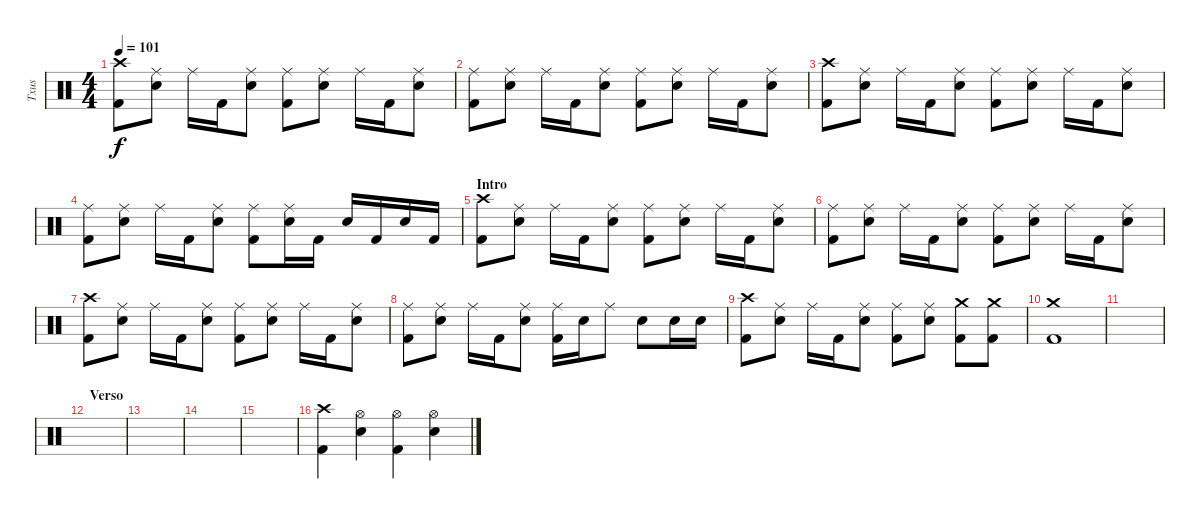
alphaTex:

\track ("Txus" "Txus") {instrument percussion}
\staff {score}
\articulation defaults
\ts (4 4)
\tempo 101
\clef neutral
\ks c
("Kick (hit) 2" "Crash high (hit)").8{dy f} ("Electric Snare (hit)" "Ride (middle)").8 "Ride (middle)".16 "Kick (hit) 2".16 ("Electric Snare (hit)" "Ride (middle)").8 ("Kick (hit) 2" "Ride (middle)").8 ("Electric Snare (hit)" "Ride (middle)").8 "Ride (middle)".16 "Kick (hit) 2".16 ("Electric Snare (hit)" "Ride (middle)").8 |
("Kick (hit) 2" "Ride (middle)").8 ("Electric Snare (hit)" "Ride (middle)").8 "Ride (middle)".16 "Kick (hit) 2".16 ("Electric Snare (hit)" "Ride (middle)").8 ("Kick (hit) 2" "Ride (middle)").8 ("Electric Snare (hit)" "Ride (middle)").8 "Ride (middle)".16 "Kick (hit) 2".16 ("Electric Snare (hit)" "Ride (middle)").8 |
("Kick (hit) 2" "Crash high (hit)").8 ("Electric Snare (hit)" "Ride (middle)").8 "Ride (middle)".16 "Kick (hit) 2".16 ("Electric Snare (hit)" "Ride (middle)").8 ("Kick (hit) 2" "Ride (middle)").8 ("Electric Snare (hit)" "Ride (middle)").8 "Ride (middle)".16 "Kick (hit) 2".16 ("Electric Snare (hit)" "Ride (middle)").8 |
("Kick (hit) 2" "Ride (middle)").8 ("Electric Snare (hit)" "Ride (middle)").8 "Ride (middle)".16 "Kick (hit) 2".16 ("Electric Snare (hit)" "Ride (middle)").8 ("Kick (hit) 2" "Ride (middle)").8 ("Electric Snare (hit)" "Ride (middle)").16 "Kick (hit) 2".16 "Electric Snare (hit)".16 "Kick (hit) 2".16 "Electric Snare (hit)".16 "Kick (hit) 2".16 |
\section ("" "Intro")
("Kick (hit) 2" "Crash high (hit)").8 ("Electric Snare (hit)" "Ride (middle)").8 "Ride (middle)".16 "Kick (hit) 2".16 ("Electric Snare (hit)" "Ride (middle)").8 ("Kick (hit) 2" "Ride (middle)").8 ("Electric Snare (hit)" "Ride (middle)").8 "Ride (middle)".16 "Kick (hit) 2".16 ("Electric Snare (hit)" "Ride (middle)").8 |
("Kick (hit) 2" "Ride (middle)").8 ("Electric Snare (hit)" "Ride (middle)").8 "Ride (middle)".16 "Kick (hit) 2".16 ("Electric Snare (hit)" "Ride (middle)").8 ("Kick (hit) 2" "Ride (middle)").8 ("Electric Snare (hit)" "Ride (middle)").8 "Ride (middle)".16 "Kick (hit) 2".16 ("Electric Snare (hit)" "Ride (middle)").8 |
("Kick (hit) 2" "Crash high (hit)").8 ("Electric Snare (hit)" "Ride (middle)").8 "Ride (middle)".16 "Kick (hit) 2".16 ("Electric Snare (hit)" "Ride (middle)").8 ("Kick (hit) 2" "Ride (middle)").8 ("Electric Snare (hit)" "Ride (middle)").8 "Ride (middle)".16 "Kick (hit) 2".16 ("Electric Snare (hit)" "Ride (middle)").8 |
("Kick (hit) 2" "Ride (middle)").8 ("Electric Snare (hit)" "Ride (middle)").8 "Ride (middle)".16 "Kick (hit) 2".16 ("Electric Snare (hit)" "Ride (middle)").8 ("Kick (hit) 2" "Ride (middle)").16 "Electric Snare (hit)".16 "Ride (middle)".8 "Electric Snare (hit)".8 "Electric Snare (hit)".16 "Electric Snare (hit)".16 |
("Kick (hit) 2" "Crash high (hit)").8 ("Electric Snare (hit)" "Ride (middle)").8 "Ride (middle)".16 "Kick (hit) 2".16 ("Electric Snare (hit)" "Ride (middle)").8 ("Kick (hit) 2" "Ride (middle)").8 ("Electric Snare (hit)" "Ride (middle)").8 ("Kick (hit) 2" "Crash medium (hit)").8 ("Kick (hit) 2" "Crash medium (hit)").8 |
("Kick (hit) 2" "Crash medium (hit)").1 |
|
\section ("" "Verso")
|
|
|
|
("Kick (hit) 2" "Crash high (hit)").4 ("Electric Snare (hit)" "Hi-Hat (open)").4 ("Kick (hit) 2" "Hi-Hat (open)").4 ("Electric Snare (hit)" "Hi-Hat (open)").4
